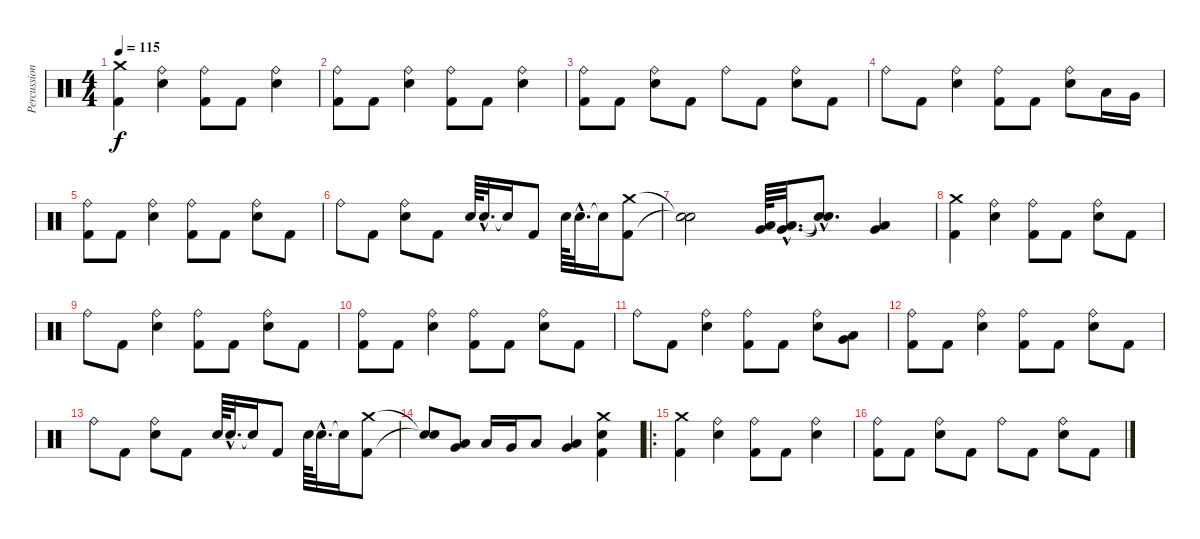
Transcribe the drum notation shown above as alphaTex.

\track ("Percussion" "Percussion") {instrument percussion}
\staff {score}
\articulation defaults
\ts (4 4)
\tempo 115
\clef neutral
\ks c
("Crash medium (hit)" "Kick (hit) 2").4{dy f} ("Ride (bell)" "Metronome (bell)").4 ("Ride (bell)" "Kick (hit) 2").8 "Kick (hit) 2".8 ("Ride (bell)" "Metronome (bell)").4 |
("Ride (bell)" "Kick (hit) 2").8 "Kick (hit) 2".8 ("Ride (bell)" "Metronome (bell)").4 ("Ride (bell)" "Kick (hit) 2").8 "Kick (hit) 2".8 ("Ride (bell)" "Metronome (bell)").4 |
("Ride (bell)" "Kick (hit) 2").8 "Kick (hit) 2".8 ("Ride (bell)" "Metronome (bell)").8 "Kick (hit) 2".8 "Ride (bell)".8 "Kick (hit) 2".8 ("Ride (bell)" "Metronome (bell)").8 "Kick (hit) 2".8 |
"Ride (bell)".8 "Kick (hit) 2".8 ("Ride (bell)" "Metronome (bell)").4 ("Ride (bell)" "Kick (hit) 2").8 "Kick (hit) 2".8 ("Ride (bell)" "Metronome (bell)").8 "Low Tom (hit)".16 "Very Low Tom (hit)".16 |
("Ride (bell)" "Kick (hit) 2").8 "Kick (hit) 2".8 ("Ride (bell)" "Metronome (bell)").4 ("Ride (bell)" "Kick (hit) 2").8 "Kick (hit) 2".8 ("Ride (bell)" "Metronome (bell)").8 "Kick (hit) 2".8 |
"Ride (bell)".8 "Kick (hit) 2".8 ("Ride (bell)" "Metronome (bell)").8 "Kick (hit) 2".8 "Metronome (bell)".64 "Metronome (bell)"{hac}.32{d} "Snare (hit)"{t}.16 "Kick (hit) 2".8 "Metronome (bell)".64 "Metronome (bell)"{hac}.32{d} "Snare (hit)"{t}.16 ("Crash medium (hit)" "Kick (hit) 2").8 |
("Snare (hit)"{t} "Snare (hit)"{t}).2 ("Low Tom (hit)" "Very Low Tom (hit)").64 ("Low Tom (hit)"{hac} "Very Low Tom (hit)"{hac}).32{d} ("Snare (hit)"{hac t} "Snare (hit)"{hac t}).8{d} ("Very Low Tom (hit)" "Low Floor Tom (hit)").4 |
("Crash medium (hit)" "Kick (hit) 2").4 ("Ride (bell)" "Metronome (bell)").4 ("Ride (bell)" "Kick (hit) 2").8 "Kick (hit) 2".8 ("Ride (bell)" "Metronome (bell)").8 "Kick (hit) 2".8 |
"Ride (bell)".8 "Kick (hit) 2".8 ("Ride (bell)" "Metronome (bell)").4 ("Ride (bell)" "Kick (hit) 2").8 "Kick (hit) 2".8 ("Ride (bell)" "Metronome (bell)").8 "Kick (hit) 2".8 |
("Ride (bell)" "Kick (hit) 2").8 "Kick (hit) 2".8 ("Ride (bell)" "Metronome (bell)").4 ("Ride (bell)" "Kick (hit) 2").8 "Kick (hit) 2".8 ("Ride (bell)" "Metronome (bell)").8 "Kick (hit) 2".8 |
"Ride (bell)".8 "Kick (hit) 2".8 ("Ride (bell)" "Metronome (bell)").4 ("Ride (bell)" "Kick (hit) 2").8 "Kick (hit) 2".8 ("Ride (bell)" "Metronome (bell)").8 ("Low Tom (hit)" "Very Low Tom (hit)").8 |
("Ride (bell)" "Kick (hit) 2").8 "Kick (hit) 2".8 ("Ride (bell)" "Metronome (bell)").4 ("Ride (bell)" "Kick (hit) 2").8 "Kick (hit) 2".8 ("Ride (bell)" "Metronome (bell)").8 "Kick (hit) 2".8 |
"Ride (bell)".8 "Kick (hit) 2".8 ("Ride (bell)" "Metronome (bell)").8 "Kick (hit) 2".8 "Metronome (bell)".64 "Metronome (bell)"{hac}.32{d} "Snare (hit)"{t}.16 "Kick (hit) 2".8 "Metronome (bell)".64 "Metronome (bell)"{hac}.32{d} "Snare (hit)"{t}.16 ("Crash medium (hit)" "Kick (hit) 2").8 |
("Snare (hit)"{t} "Snare (hit)"{t}).8 ("Low Tom (hit)" "Very Low Tom (hit)").8 "Low Tom (hit)".16 "Very Low Tom (hit)".16 "Low Floor Tom (hit)".8 ("Very Low Tom (hit)" "Low Floor Tom (hit)").4 ("Crash medium (hit)" "Metronome (bell)" "Kick (hit) 2").4 |
\ro
("Crash medium (hit)" "Kick (hit) 2").4 ("Ride (bell)" "Metronome (bell)").4 ("Ride (bell)" "Kick (hit) 2").8 "Kick (hit) 2".8 ("Ride (bell)" "Metronome (bell)").4 |
("Ride (bell)" "Kick (hit) 2").8 "Kick (hit) 2".8 ("Ride (bell)" "Metronome (bell)").8 "Kick (hit) 2".8 "Ride (bell)".8 "Kick (hit) 2".8 ("Ride (bell)" "Metronome (bell)").8 "Kick (hit) 2".8
